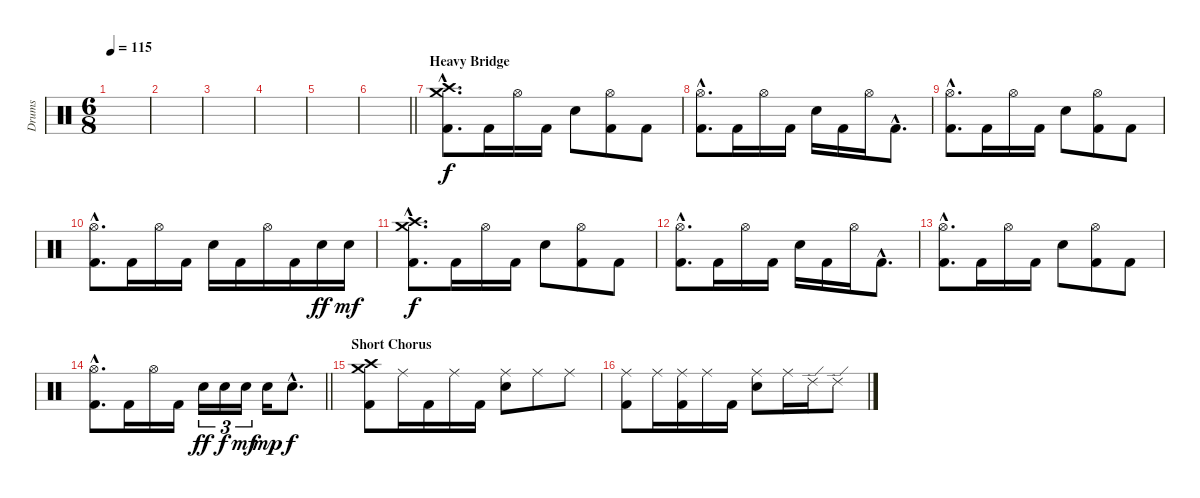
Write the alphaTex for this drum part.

\track ("Drums" "Drums") {instrument percussion}
\staff {score}
\articulation defaults
\ts (6 8)
\tempo 115
\clef neutral
\ks c
|
|
|
|
|
\barLineRight lightlight
|
\section ("" "Heavy Bridge")
("Crash medium (hit)"{hac} "Crash high (hit)"{hac} "Kick (hit) 2"{hac}).8{d} "Kick (hit) 2".16 "Hi-Hat (open)".16 "Kick (hit) 2".16 "Electric Snare (hit)".8 ("Hi-Hat (open)" "Kick (hit) 2").8 "Kick (hit) 2".8 |
("Hi-Hat (open)"{hac} "Kick (hit) 2"{hac}).8{d} "Kick (hit) 2".16 "Hi-Hat (open)".16 "Kick (hit) 2".16 "Electric Snare (hit)".16 "Kick (hit) 2".16 "Hi-Hat (open)".16 "Kick (hit) 2"{hac}.8{d} |
("Hi-Hat (open)"{hac} "Kick (hit) 2"{hac}).8{d} "Kick (hit) 2".16 "Hi-Hat (open)".16 "Kick (hit) 2".16 "Electric Snare (hit)".8 ("Hi-Hat (open)" "Kick (hit) 2").8 "Kick (hit) 2".8 |
("Hi-Hat (open)"{hac} "Kick (hit) 2"{hac}).8{d} "Kick (hit) 2".16 "Hi-Hat (open)".16 "Kick (hit) 2".16 "Electric Snare (hit)".16 "Kick (hit) 2".16 "Hi-Hat (open)".16 "Kick (hit) 2".16 "Electric Snare (hit)".16{dy ff} "Electric Snare (hit)".16{dy mf} |
("Crash medium (hit)"{hac} "Crash high (hit)"{hac} "Kick (hit) 2"{hac}).8{d dy f} "Kick (hit) 2".16 "Hi-Hat (open)".16 "Kick (hit) 2".16 "Electric Snare (hit)".8 ("Hi-Hat (open)" "Kick (hit) 2").8 "Kick (hit) 2".8 |
("Hi-Hat (open)"{hac} "Kick (hit) 2"{hac}).8{d} "Kick (hit) 2".16 "Hi-Hat (open)".16 "Kick (hit) 2".16 "Electric Snare (hit)".16 "Kick (hit) 2".16 "Hi-Hat (open)".16 "Kick (hit) 2"{hac}.8{d} |
("Hi-Hat (open)"{hac} "Kick (hit) 2"{hac}).8{d} "Kick (hit) 2".16 "Hi-Hat (open)".16 "Kick (hit) 2".16 "Electric Snare (hit)".8 ("Hi-Hat (open)" "Kick (hit) 2").8 "Kick (hit) 2".8 |
\barLineRight lightlight
("Hi-Hat (open)"{hac} "Kick (hit) 2"{hac}).8{d} "Kick (hit) 2".16 "Hi-Hat (open)".16 "Kick (hit) 2".16 "Electric Snare (hit)".16{tu (3 2) dy ff} "Electric Snare (hit)".16{tu (3 2) dy f} "Electric Snare (hit)".16{tu (3 2) dy mf} "Electric Snare (hit)".16{dy mp} "Electric Snare (hit)"{hac}.8{d dy f} |
\section ("" "Short Chorus")
("Crash medium (hit)" "Crash high (hit)" "Kick (hit) 2").8 "Ride (middle)".16 "Kick (hit) 2".16 "Ride (middle)".16 "Kick (hit) 2".16 ("Ride (middle)" "Electric Snare (hit)").8 "Ride (middle)".8 "Ride (middle)".8 |
("Ride (middle)" "Kick (hit) 2").8 "Ride (middle)".16 ("Ride (middle)" "Kick (hit) 2").16 "Ride (middle)".16 "Kick (hit) 2".16 ("Ride (middle)" "Electric Snare (hit)").8 "Ride (middle)".16 "Ride (edge) 2".16 "Ride (edge) 2".8
